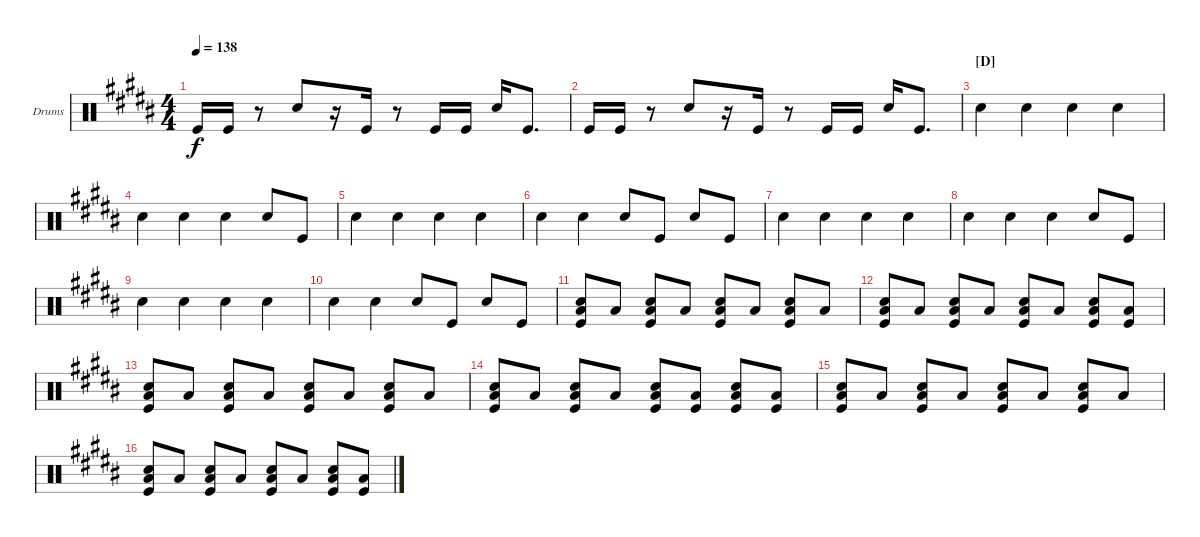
\bracketExtendMode groupsimilarinstruments
\firstSystemTrackNameOrientation horizontal
\otherSystemsTrackNameOrientation horizontal
\track ("Fabrizio Moretti" "Drums") {instrument percussion}
\staff {score}
\articulation defaults
\ts (4 4)
\tempo 138
\clef neutral
\ks b "Kick (hit)".16{dy f} "Kick (hit)".16
r.8 "Snare (hit) 2".8 r.16 "Kick (hit)".16 r.8 "Kick (hit)".16 "Kick (hit)".16 "Snare (hit) 2".16 "Kick (hit)".8{d} |
"Kick (hit)".16 "Kick (hit)".16 r.8 "Snare (hit) 2".8 r.16 "Kick (hit)".16 r.8 "Kick (hit)".16 "Kick (hit)".16 "Snare (hit) 2".16 "Kick (hit)".8{d} |
\section ("D" "")
"Snare (hit) 2".4 "Snare (hit) 2".4 "Snare (hit) 2".4 "Snare (hit) 2".4 |
"Snare (hit) 2".4 "Snare (hit) 2".4 "Snare (hit) 2".4 "Snare (hit) 2".8 "Kick (hit)".8 |
"Snare (hit) 2".4 "Snare (hit) 2".4 "Snare (hit) 2".4 "Snare (hit) 2".4 |
"Snare (hit) 2".4 "Snare (hit) 2".4 "Snare (hit) 2".8 "Kick (hit)".8 "Snare (hit) 2".8 "Kick (hit)".8 |
"Snare (hit) 2".4 "Snare (hit) 2".4 "Snare (hit) 2".4 "Snare (hit) 2".4 |
"Snare (hit) 2".4 "Snare (hit) 2".4 "Snare (hit) 2".4 "Snare (hit) 2".8 "Kick (hit)".8 |
"Snare (hit) 2".4 "Snare (hit) 2".4 "Snare (hit) 2".4 "Snare (hit) 2".4 |
"Snare (hit) 2".4 "Snare (hit) 2".4 "Snare (hit) 2".8 "Kick (hit)".8 "Snare (hit) 2".8 "Kick (hit)".8 |
("Snare (hit) 2" "Kick (hit)" "Low Tom (hit)").8 "Low Tom (hit)".8 ("Snare (hit) 2" "Kick (hit)" "Low Tom (hit)").8 "Low Tom (hit)".8 ("Snare (hit) 2" "Kick (hit)" "Low Tom (hit)").8 "Low Tom (hit)".8 ("Snare (hit) 2" "Kick (hit)" "Low Tom (hit)").8 "Low Tom (hit)".8 |
("Snare (hit) 2" "Kick (hit)" "Low Tom (hit)").8 "Low Tom (hit)".8 ("Snare (hit) 2" "Kick (hit)" "Low Tom (hit)").8 "Low Tom (hit)".8 ("Snare (hit) 2" "Kick (hit)" "Low Tom (hit)").8 "Low Tom (hit)".8 ("Snare (hit) 2" "Kick (hit)" "Low Tom (hit)").8 ("Low Tom (hit)" "Kick (hit)").8 |
("Snare (hit) 2" "Kick (hit)" "Low Tom (hit)").8 "Low Tom (hit)".8 ("Snare (hit) 2" "Kick (hit)" "Low Tom (hit)").8 "Low Tom (hit)".8 ("Snare (hit) 2" "Kick (hit)" "Low Tom (hit)").8 "Low Tom (hit)".8 ("Snare (hit) 2" "Kick (hit)" "Low Tom (hit)").8 "Low Tom (hit)".8 |
("Snare (hit) 2" "Kick (hit)" "Low Tom (hit)").8 "Low Tom (hit)".8 ("Snare (hit) 2" "Kick (hit)" "Low Tom (hit)").8 "Low Tom (hit)".8 ("Snare (hit) 2" "Kick (hit)" "Low Tom (hit)").8 ("Low Tom (hit)" "Kick (hit)").8 ("Snare (hit) 2" "Kick (hit)" "Low Tom (hit)").8 ("Low Tom (hit)" "Kick (hit)").8 |
("Snare (hit) 2" "Kick (hit)" "Low Tom (hit)").8 "Low Tom (hit)".8 ("Snare (hit) 2" "Kick (hit)" "Low Tom (hit)").8 "Low Tom (hit)".8 ("Snare (hit) 2" "Kick (hit)" "Low Tom (hit)").8 "Low Tom (hit)".8 ("Snare (hit) 2" "Kick (hit)" "Low Tom (hit)").8 "Low Tom (hit)".8 |
("Snare (hit) 2" "Kick (hit)" "Low Tom (hit)").8 "Low Tom (hit)".8 ("Snare (hit) 2" "Kick (hit)" "Low Tom (hit)").8 "Low Tom (hit)".8 ("Snare (hit) 2" "Kick (hit)" "Low Tom (hit)").8 "Low Tom (hit)".8 ("Snare (hit) 2" "Kick (hit)" "Low Tom (hit)").8 ("Low Tom (hit)" "Kick (hit)").8
